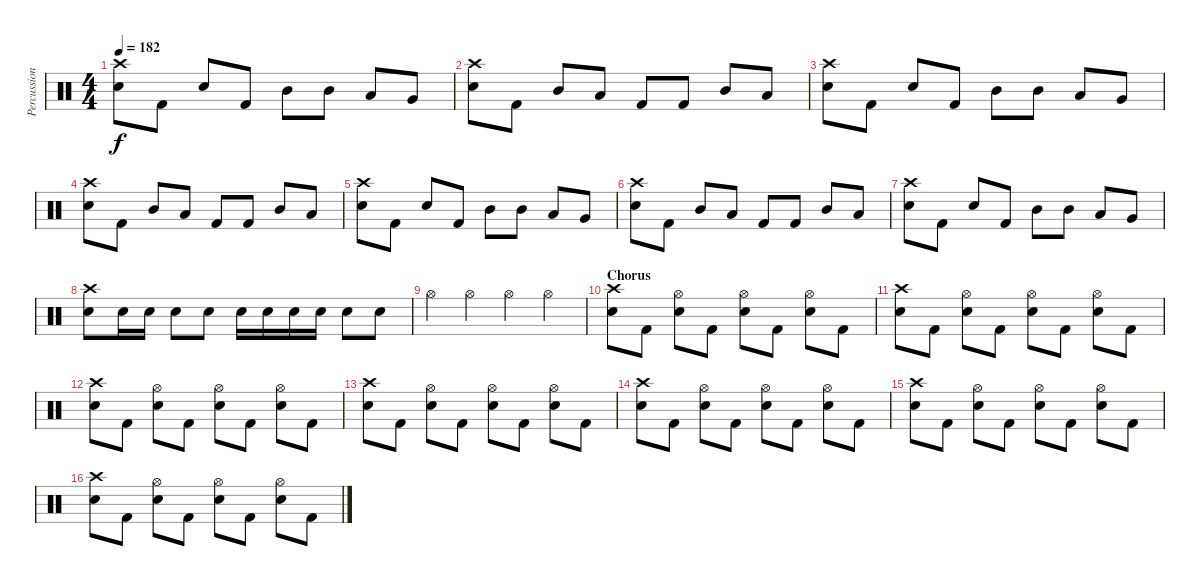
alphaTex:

\track ("Percussion" "Percussion") {instrument percussion}
\staff {score}
\articulation defaults
\ts (4 4)
\tempo 182
\clef neutral
\ks c
("Crash high (hit)" "Snare (hit) 2").8{dy f} "Kick (hit) 2".8 "Snare (hit) 2".8 "Kick (hit) 2".8 "Mid Tom (hit)".8 "Mid Tom (hit)".8 "Low Tom (hit)".8 "Very Low Tom (hit)".8 |
("Crash high (hit)" "Snare (hit) 2").8 "Kick (hit) 2".8 "Mid Tom (hit)".8 "Low Tom (hit)".8 "Kick (hit) 2".8 "Kick (hit) 2".8 "Mid Tom (hit)".8 "Low Tom (hit)".8 |
("Crash high (hit)" "Snare (hit) 2").8 "Kick (hit) 2".8 "Snare (hit) 2".8 "Kick (hit) 2".8 "Mid Tom (hit)".8 "Mid Tom (hit)".8 "Low Tom (hit)".8 "Very Low Tom (hit)".8 |
("Crash high (hit)" "Snare (hit) 2").8 "Kick (hit) 2".8 "Mid Tom (hit)".8 "Low Tom (hit)".8 "Kick (hit) 2".8 "Kick (hit) 2".8 "Mid Tom (hit)".8 "Low Tom (hit)".8 |
("Crash high (hit)" "Snare (hit) 2").8 "Kick (hit) 2".8 "Snare (hit) 2".8 "Kick (hit) 2".8 "Mid Tom (hit)".8 "Mid Tom (hit)".8 "Low Tom (hit)".8 "Very Low Tom (hit)".8 |
("Crash high (hit)" "Snare (hit) 2").8 "Kick (hit) 2".8 "Mid Tom (hit)".8 "Low Tom (hit)".8 "Kick (hit) 2".8 "Kick (hit) 2".8 "Mid Tom (hit)".8 "Low Tom (hit)".8 |
("Crash high (hit)" "Snare (hit) 2").8 "Kick (hit) 2".8 "Snare (hit) 2".8 "Kick (hit) 2".8 "Mid Tom (hit)".8 "Mid Tom (hit)".8 "Low Tom (hit)".8 "Very Low Tom (hit)".8 |
("Crash high (hit)" "Snare (hit) 2").8 "Snare (hit) 2".16 "Snare (hit) 2".16 "Snare (hit) 2".8 "Snare (hit) 2".8 "Snare (hit) 2".16 "Snare (hit) 2".16 "Snare (hit) 2".16 "Snare (hit) 2".16 "Snare (hit) 2".8 "Snare (hit) 2".8 |
"Hi-Hat (open)".4 "Hi-Hat (open)".4 "Hi-Hat (open)".4 "Hi-Hat (open)".4 |
\section ("" "Chorus")
("Crash high (hit)" "Snare (hit) 2").8 "Kick (hit) 2".8 ("Hi-Hat (open)" "Snare (hit) 2").8 "Kick (hit) 2".8 ("Hi-Hat (open)" "Snare (hit) 2").8 "Kick (hit) 2".8 ("Hi-Hat (open)" "Snare (hit) 2").8 "Kick (hit) 2".8 |
("Crash high (hit)" "Snare (hit) 2").8 "Kick (hit) 2".8 ("Hi-Hat (open)" "Snare (hit) 2").8 "Kick (hit) 2".8 ("Hi-Hat (open)" "Snare (hit) 2").8 "Kick (hit) 2".8 ("Hi-Hat (open)" "Snare (hit) 2").8 "Kick (hit) 2".8 |
("Crash high (hit)" "Snare (hit) 2").8 "Kick (hit) 2".8 ("Hi-Hat (open)" "Snare (hit) 2").8 "Kick (hit) 2".8 ("Hi-Hat (open)" "Snare (hit) 2").8 "Kick (hit) 2".8 ("Hi-Hat (open)" "Snare (hit) 2").8 "Kick (hit) 2".8 |
("Crash high (hit)" "Snare (hit) 2").8 "Kick (hit) 2".8 ("Hi-Hat (open)" "Snare (hit) 2").8 "Kick (hit) 2".8 ("Hi-Hat (open)" "Snare (hit) 2").8 "Kick (hit) 2".8 ("Hi-Hat (open)" "Snare (hit) 2").8 "Kick (hit) 2".8 |
("Crash high (hit)" "Snare (hit) 2").8 "Kick (hit) 2".8 ("Hi-Hat (open)" "Snare (hit) 2").8 "Kick (hit) 2".8 ("Hi-Hat (open)" "Snare (hit) 2").8 "Kick (hit) 2".8 ("Hi-Hat (open)" "Snare (hit) 2").8 "Kick (hit) 2".8 |
("Crash high (hit)" "Snare (hit) 2").8 "Kick (hit) 2".8 ("Hi-Hat (open)" "Snare (hit) 2").8 "Kick (hit) 2".8 ("Hi-Hat (open)" "Snare (hit) 2").8 "Kick (hit) 2".8 ("Hi-Hat (open)" "Snare (hit) 2").8 "Kick (hit) 2".8 |
("Crash high (hit)" "Snare (hit) 2").8 "Kick (hit) 2".8 ("Hi-Hat (open)" "Snare (hit) 2").8 "Kick (hit) 2".8 ("Hi-Hat (open)" "Snare (hit) 2").8 "Kick (hit) 2".8 ("Hi-Hat (open)" "Snare (hit) 2").8 "Kick (hit) 2".8
